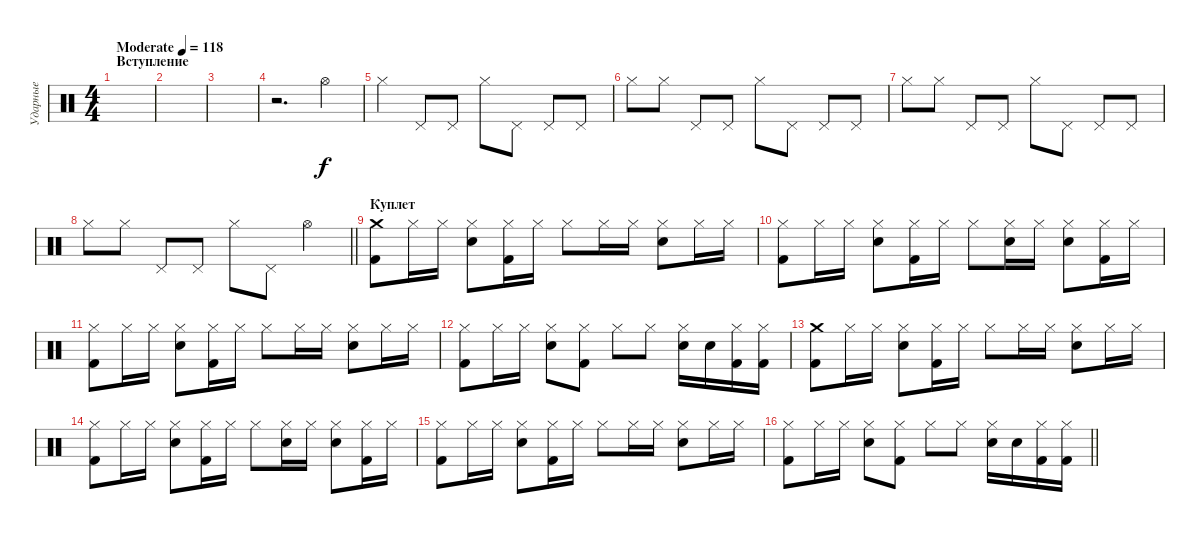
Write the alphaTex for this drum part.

\track ("Ударные" "Ударные") {instrument percussion}
\staff {score}
\articulation defaults
\ts (4 4)
\section ("" "Вступление")
\tempo (118 "Moderate")
\clef neutral
\ks c
|
|
|
r.2{d} "Hi-Hat (open)".4 |
"Hi-Hat (closed)".4 "Pedal Hi-Hat (hit)".8 "Pedal Hi-Hat (hit)".8 "Hi-Hat (closed)".8 "Pedal Hi-Hat (hit)".8 "Pedal Hi-Hat (hit)".8 "Pedal Hi-Hat (hit)".8 |
"Hi-Hat (closed)".8 "Hi-Hat (closed)".8 "Pedal Hi-Hat (hit)".8 "Pedal Hi-Hat (hit)".8 "Hi-Hat (closed)".8 "Pedal Hi-Hat (hit)".8 "Pedal Hi-Hat (hit)".8 "Pedal Hi-Hat (hit)".8 |
"Hi-Hat (closed)".8 "Hi-Hat (closed)".8 "Pedal Hi-Hat (hit)".8 "Pedal Hi-Hat (hit)".8 "Hi-Hat (closed)".8 "Pedal Hi-Hat (hit)".8 "Pedal Hi-Hat (hit)".8 "Pedal Hi-Hat (hit)".8 |
\barLineRight lightlight "Hi-Hat (closed)".8 "Hi-Hat (closed)".8 "Pedal Hi-Hat (hit)".8 "Pedal Hi-Hat (hit)".8 "Hi-Hat (closed)".8 "Pedal Hi-Hat (hit)".8 "Hi-Hat (open)".4
|
\section ("" "Куплет")
("Crash medium (hit)" "Kick (hit) 2").8 "Hi-Hat (closed)".16 "Hi-Hat (closed)".16 ("Hi-Hat (closed)" "Electric Snare (hit)").8 ("Hi-Hat (closed)" "Kick (hit) 2").16 "Hi-Hat (closed)".16 "Hi-Hat (closed)".8 "Hi-Hat (closed)".16 "Hi-Hat (closed)".16 ("Hi-Hat (closed)" "Electric Snare (hit)").8 "Hi-Hat (closed)".16 "Hi-Hat (closed)".16 |
("Hi-Hat (closed)" "Kick (hit) 2").8 "Hi-Hat (closed)".16 "Hi-Hat (closed)".16 ("Hi-Hat (closed)" "Electric Snare (hit)").8 ("Hi-Hat (closed)" "Kick (hit) 2").16 "Hi-Hat (closed)".16 "Hi-Hat (closed)".8 ("Hi-Hat (closed)" "Electric Snare (hit)").16 "Hi-Hat (closed)".16 ("Hi-Hat (closed)" "Electric Snare (hit)").8 ("Hi-Hat (closed)" "Kick (hit) 2").16 "Hi-Hat (closed)".16 |
("Hi-Hat (closed)" "Kick (hit) 2").8 "Hi-Hat (closed)".16 "Hi-Hat (closed)".16 ("Hi-Hat (closed)" "Electric Snare (hit)").8 ("Hi-Hat (closed)" "Kick (hit) 2").16 "Hi-Hat (closed)".16 "Hi-Hat (closed)".8 "Hi-Hat (closed)".16 "Hi-Hat (closed)".16 ("Hi-Hat (closed)" "Electric Snare (hit)").8 "Hi-Hat (closed)".16 "Hi-Hat (closed)".16 |
("Hi-Hat (closed)" "Kick (hit) 2").8 "Hi-Hat (closed)".16 "Hi-Hat (closed)".16 ("Hi-Hat (closed)" "Electric Snare (hit)").8 ("Hi-Hat (closed)" "Kick (hit) 2").8 "Hi-Hat (closed)".8 "Hi-Hat (closed)".8 ("Hi-Hat (closed)" "Electric Snare (hit)").16 "Electric Snare (hit)".16 ("Hi-Hat (closed)" "Kick (hit) 2").16 ("Hi-Hat (closed)" "Kick (hit) 2").16 |
("Crash medium (hit)" "Kick (hit) 2").8 "Hi-Hat (closed)".16 "Hi-Hat (closed)".16 ("Hi-Hat (closed)" "Electric Snare (hit)").8 ("Hi-Hat (closed)" "Kick (hit) 2").16 "Hi-Hat (closed)".16 "Hi-Hat (closed)".8 "Hi-Hat (closed)".16 "Hi-Hat (closed)".16 ("Hi-Hat (closed)" "Electric Snare (hit)").8 "Hi-Hat (closed)".16 "Hi-Hat (closed)".16 |
("Hi-Hat (closed)" "Kick (hit) 2").8 "Hi-Hat (closed)".16 "Hi-Hat (closed)".16 ("Hi-Hat (closed)" "Electric Snare (hit)").8 ("Hi-Hat (closed)" "Kick (hit) 2").16 "Hi-Hat (closed)".16 "Hi-Hat (closed)".8 ("Hi-Hat (closed)" "Electric Snare (hit)").16 "Hi-Hat (closed)".16 ("Hi-Hat (closed)" "Electric Snare (hit)").8 ("Hi-Hat (closed)" "Kick (hit) 2").16 "Hi-Hat (closed)".16 |
("Hi-Hat (closed)" "Kick (hit) 2").8 "Hi-Hat (closed)".16 "Hi-Hat (closed)".16 ("Hi-Hat (closed)" "Electric Snare (hit)").8 ("Hi-Hat (closed)" "Kick (hit) 2").16 "Hi-Hat (closed)".16 "Hi-Hat (closed)".8 "Hi-Hat (closed)".16 "Hi-Hat (closed)".16 ("Hi-Hat (closed)" "Electric Snare (hit)").8 "Hi-Hat (closed)".16 "Hi-Hat (closed)".16 |
\barLineRight lightlight
("Hi-Hat (closed)" "Kick (hit) 2").8 "Hi-Hat (closed)".16 "Hi-Hat (closed)".16 ("Hi-Hat (closed)" "Electric Snare (hit)").8 ("Hi-Hat (closed)" "Kick (hit) 2").8 "Hi-Hat (closed)".8 "Hi-Hat (closed)".8 ("Hi-Hat (closed)" "Electric Snare (hit)").16 "Electric Snare (hit)".16 ("Hi-Hat (closed)" "Kick (hit) 2").16 ("Hi-Hat (closed)" "Kick (hit) 2").16
